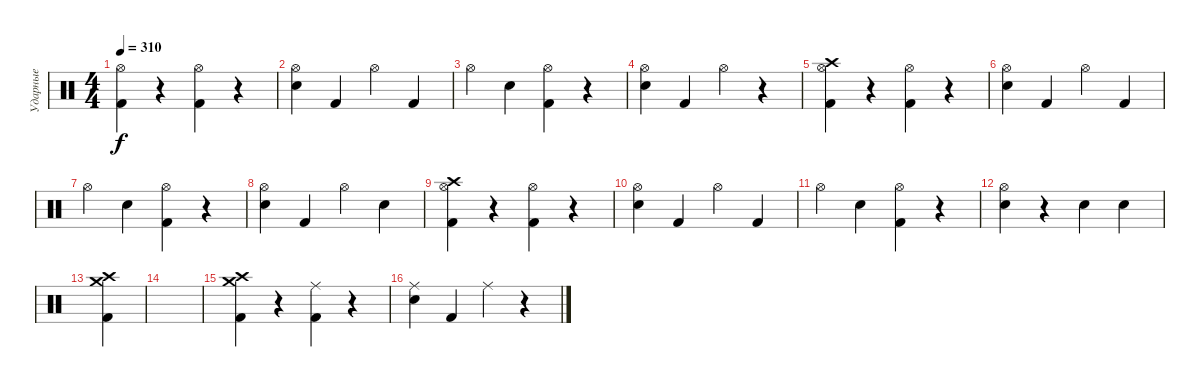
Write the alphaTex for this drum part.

\track ("Ударные" "Ударные") {instrument percussion}
\staff {score}
\articulation defaults
\ts (4 4)
\tempo 310
\clef neutral
\ks c
("Hi-Hat (open)" "Kick (hit) 2").4{dy f} r.4 ("Hi-Hat (open)" "Kick (hit) 2").4 r.4 |
("Hi-Hat (open)" "Electric Snare (hit)").4 "Kick (hit) 2".4 "Hi-Hat (open)".4 "Kick (hit) 2".4 |
"Hi-Hat (open)".4 "Electric Snare (hit)".4 ("Hi-Hat (open)" "Kick (hit) 2").4 r.4 |
("Hi-Hat (open)" "Electric Snare (hit)").4 "Kick (hit) 2".4 "Hi-Hat (open)".4 r.4 |
("Crash high (hit)" "Hi-Hat (open)" "Kick (hit) 2").4 r.4 ("Hi-Hat (open)" "Kick (hit) 2").4 r.4 |
("Hi-Hat (open)" "Electric Snare (hit)").4 "Kick (hit) 2".4 "Hi-Hat (open)".4 "Kick (hit) 2".4 |
"Hi-Hat (open)".4 "Electric Snare (hit)".4 ("Hi-Hat (open)" "Kick (hit) 2").4 r.4 |
("Hi-Hat (open)" "Electric Snare (hit)").4 "Kick (hit) 2".4 "Hi-Hat (open)".4 "Electric Snare (hit)".4 |
("Crash high (hit)" "Hi-Hat (open)" "Kick (hit) 2").4 r.4 ("Hi-Hat (open)" "Kick (hit) 2").4 r.4 |
("Hi-Hat (open)" "Electric Snare (hit)").4 "Kick (hit) 2".4 "Hi-Hat (open)".4 "Kick (hit) 2".4 |
"Hi-Hat (open)".4 "Electric Snare (hit)".4 ("Hi-Hat (open)" "Kick (hit) 2").4 r.4 |
("Hi-Hat (open)" "Electric Snare (hit)").4 r.4 "Electric Snare (hit)".4 "Electric Snare (hit)".4 |
("Crash medium (hit)" "Crash high (hit)" "Kick (hit) 2").4 |
|
("Crash high (hit)" "Crash medium (hit)" "Kick (hit) 2").4 r.4 ("Ride (middle)" "Kick (hit) 2").4 r.4 |
("Ride (middle)" "Electric Snare (hit)").4 "Kick (hit) 2".4 "Ride (middle)".4 r.4
